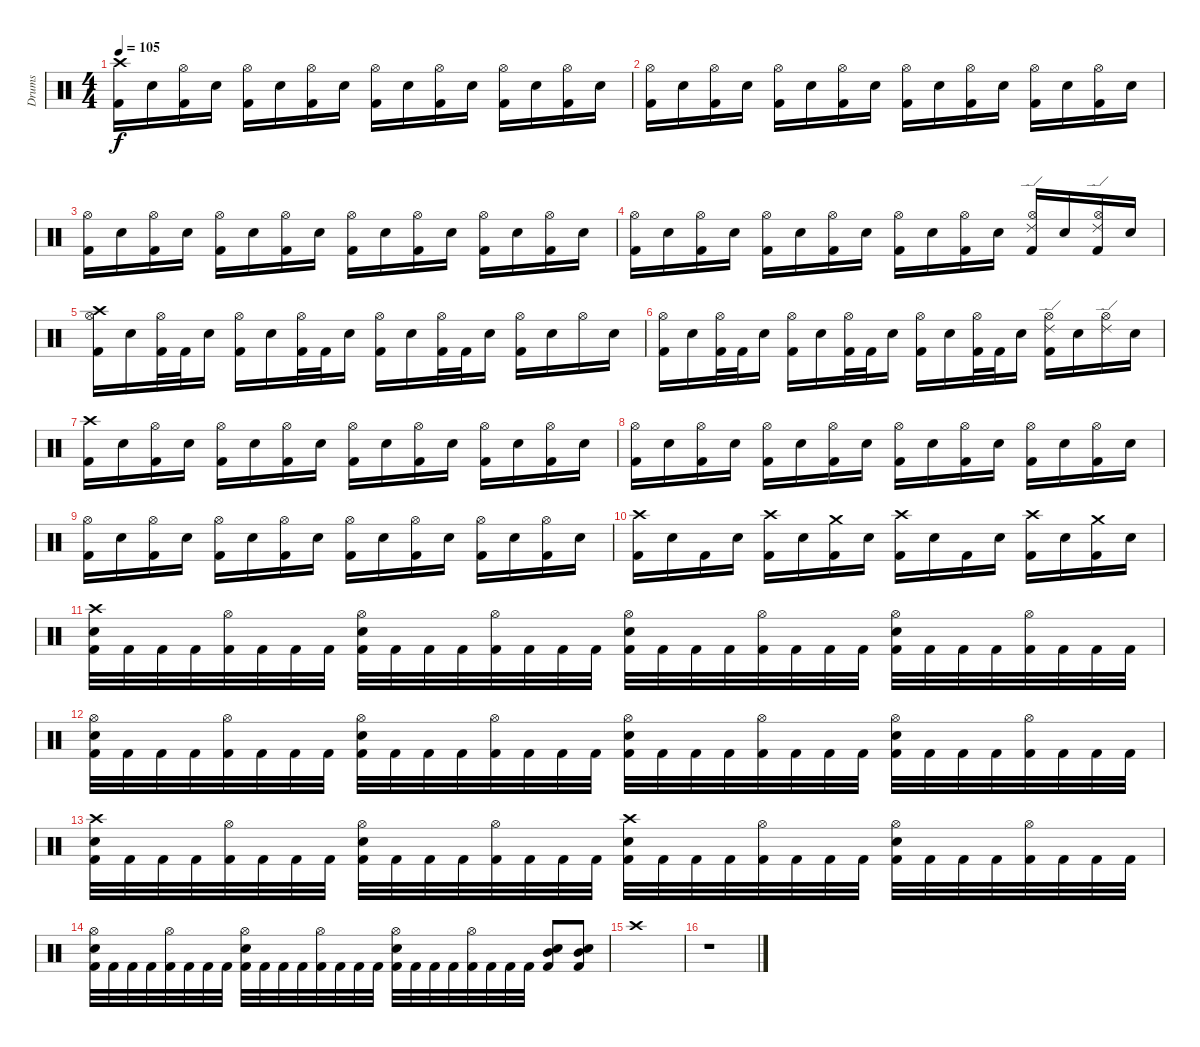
\track ("Drums" "Drums") {instrument percussion}
\staff {score}
\articulation defaults
\ts (4 4)
\tempo 105
\clef neutral
\ks c
("Crash high (hit)" "Kick (hit) 2").16{dy f} "Snare (hit) 2".16 ("Hi-Hat (open)" "Kick (hit) 2").16 "Snare (hit) 2".16 ("Hi-Hat (open)" "Kick (hit) 2").16 "Snare (hit) 2".16 ("Hi-Hat (open)" "Kick (hit) 2").16 "Snare (hit) 2".16 ("Hi-Hat (open)" "Kick (hit) 2").16 "Snare (hit) 2".16 ("Hi-Hat (open)" "Kick (hit) 2").16 "Snare (hit) 2".16 ("Hi-Hat (open)" "Kick (hit) 2").16 "Snare (hit) 2".16 ("Hi-Hat (open)" "Kick (hit) 2").16 "Snare (hit) 2".16 |
("Hi-Hat (open)" "Kick (hit) 2").16 "Snare (hit) 2".16 ("Hi-Hat (open)" "Kick (hit) 2").16 "Snare (hit) 2".16 ("Hi-Hat (open)" "Kick (hit) 2").16 "Snare (hit) 2".16 ("Hi-Hat (open)" "Kick (hit) 2").16 "Snare (hit) 2".16 ("Hi-Hat (open)" "Kick (hit) 2").16 "Snare (hit) 2".16 ("Hi-Hat (open)" "Kick (hit) 2").16 "Snare (hit) 2".16 ("Hi-Hat (open)" "Kick (hit) 2").16 "Snare (hit) 2".16 ("Hi-Hat (open)" "Kick (hit) 2").16 "Snare (hit) 2".16 |
("Hi-Hat (open)" "Kick (hit) 2").16 "Snare (hit) 2".16 ("Hi-Hat (open)" "Kick (hit) 2").16 "Snare (hit) 2".16 ("Hi-Hat (open)" "Kick (hit) 2").16 "Snare (hit) 2".16 ("Hi-Hat (open)" "Kick (hit) 2").16 "Snare (hit) 2".16 ("Hi-Hat (open)" "Kick (hit) 2").16 "Snare (hit) 2".16 ("Hi-Hat (open)" "Kick (hit) 2").16 "Snare (hit) 2".16 ("Hi-Hat (open)" "Kick (hit) 2").16 "Snare (hit) 2".16 ("Hi-Hat (open)" "Kick (hit) 2").16 "Snare (hit) 2".16 |
("Hi-Hat (open)" "Kick (hit) 2").16 "Snare (hit) 2".16 ("Hi-Hat (open)" "Kick (hit) 2").16 "Snare (hit) 2".16 ("Hi-Hat (open)" "Kick (hit) 2").16 "Snare (hit) 2".16 ("Hi-Hat (open)" "Kick (hit) 2").16 "Snare (hit) 2".16 ("Hi-Hat (open)" "Kick (hit) 2").16 "Snare (hit) 2".16 ("Hi-Hat (open)" "Kick (hit) 2").16 "Snare (hit) 2".16 ("Ride (edge) 2" "Hi-Hat (open)" "Kick (hit) 2").16 "Snare (hit) 2".16 ("Ride (edge) 2" "Hi-Hat (open)" "Kick (hit) 2").16 "Snare (hit) 2".16 |
("Crash high (hit)" "Hi-Hat (open)" "Kick (hit) 2").16 "Snare (hit) 2".16 ("Hi-Hat (open)" "Kick (hit) 2").32 "Kick (hit) 2".32 "Snare (hit) 2".16 ("Hi-Hat (open)" "Kick (hit) 2").16 "Snare (hit) 2".16 ("Hi-Hat (open)" "Kick (hit) 2").32 "Kick (hit) 2".32 "Snare (hit) 2".16 ("Hi-Hat (open)" "Kick (hit) 2").16 "Snare (hit) 2".16 ("Hi-Hat (open)" "Kick (hit) 2").32 "Kick (hit) 2".32 "Snare (hit) 2".16 ("Hi-Hat (open)" "Kick (hit) 2").16 "Snare (hit) 2".16 "Hi-Hat (open)".16 "Snare (hit) 2".16 |
("Hi-Hat (open)" "Kick (hit) 2").16 "Snare (hit) 2".16 ("Hi-Hat (open)" "Kick (hit) 2").32 "Kick (hit) 2".32 "Snare (hit) 2".16 ("Hi-Hat (open)" "Kick (hit) 2").16 "Snare (hit) 2".16 ("Hi-Hat (open)" "Kick (hit) 2").32 "Kick (hit) 2".32 "Snare (hit) 2".16 ("Hi-Hat (open)" "Kick (hit) 2").16 "Snare (hit) 2".16 ("Hi-Hat (open)" "Kick (hit) 2").32 "Kick (hit) 2".32 "Snare (hit) 2".16 ("Ride (edge) 2" "Hi-Hat (open)" "Kick (hit) 2").16 "Snare (hit) 2".16 ("Ride (edge) 2" "Hi-Hat (open)").16 "Snare (hit) 2".16 |
("Crash high (hit)" "Kick (hit) 2").16 "Snare (hit) 2".16 ("Hi-Hat (open)" "Kick (hit) 2").16 "Snare (hit) 2".16 ("Hi-Hat (open)" "Kick (hit) 2").16 "Snare (hit) 2".16 ("Hi-Hat (open)" "Kick (hit) 2").16 "Snare (hit) 2".16 ("Hi-Hat (open)" "Kick (hit) 2").16 "Snare (hit) 2".16 ("Hi-Hat (open)" "Kick (hit) 2").16 "Snare (hit) 2".16 ("Hi-Hat (open)" "Kick (hit) 2").16 "Snare (hit) 2".16 ("Hi-Hat (open)" "Kick (hit) 2").16 "Snare (hit) 2".16 |
("Hi-Hat (open)" "Kick (hit) 2").16 "Snare (hit) 2".16 ("Hi-Hat (open)" "Kick (hit) 2").16 "Snare (hit) 2".16 ("Hi-Hat (open)" "Kick (hit) 2").16 "Snare (hit) 2".16 ("Hi-Hat (open)" "Kick (hit) 2").16 "Snare (hit) 2".16 ("Hi-Hat (open)" "Kick (hit) 2").16 "Snare (hit) 2".16 ("Hi-Hat (open)" "Kick (hit) 2").16 "Snare (hit) 2".16 ("Hi-Hat (open)" "Kick (hit) 2").16 "Snare (hit) 2".16 ("Hi-Hat (open)" "Kick (hit) 2").16 "Snare (hit) 2".16 |
("Hi-Hat (open)" "Kick (hit) 2").16 "Snare (hit) 2".16 ("Hi-Hat (open)" "Kick (hit) 2").16 "Snare (hit) 2".16 ("Hi-Hat (open)" "Kick (hit) 2").16 "Snare (hit) 2".16 ("Hi-Hat (open)" "Kick (hit) 2").16 "Snare (hit) 2".16 ("Hi-Hat (open)" "Kick (hit) 2").16 "Snare (hit) 2".16 ("Hi-Hat (open)" "Kick (hit) 2").16 "Snare (hit) 2".16 ("Hi-Hat (open)" "Kick (hit) 2").16 "Snare (hit) 2".16 ("Hi-Hat (open)" "Kick (hit) 2").16 "Snare (hit) 2".16 |
("Crash high (hit)" "Kick (hit) 2").16 "Snare (hit) 2".16 "Kick (hit) 2".16 "Snare (hit) 2".16 ("Crash high (hit)" "Kick (hit) 2").16 "Snare (hit) 2".16 ("Crash medium (hit)" "Kick (hit) 2").16 "Snare (hit) 2".16 ("Crash high (hit)" "Kick (hit) 2").16 "Snare (hit) 2".16 "Kick (hit) 2".16 "Snare (hit) 2".16 ("Crash high (hit)" "Kick (hit) 2").16 "Snare (hit) 2".16 ("Crash medium (hit)" "Kick (hit) 2").16 "Snare (hit) 2".16 |
("Crash high (hit)" "Snare (hit) 2" "Kick (hit) 2").32 "Kick (hit) 2".32 "Kick (hit) 2".32 "Kick (hit) 2".32 ("Hi-Hat (open)" "Kick (hit) 2").32 "Kick (hit) 2".32 "Kick (hit) 2".32 "Kick (hit) 2".32 ("Snare (hit) 2" "Hi-Hat (open)" "Kick (hit) 2").32 "Kick (hit) 2".32 "Kick (hit) 2".32 "Kick (hit) 2".32 ("Hi-Hat (open)" "Kick (hit) 2").32 "Kick (hit) 2".32 "Kick (hit) 2".32 "Kick (hit) 2".32 ("Snare (hit) 2" "Hi-Hat (open)" "Kick (hit) 2").32 "Kick (hit) 2".32 "Kick (hit) 2".32 "Kick (hit) 2".32 ("Hi-Hat (open)" "Kick (hit) 2").32 "Kick (hit) 2".32 "Kick (hit) 2".32 "Kick (hit) 2".32 ("Snare (hit) 2" "Hi-Hat (open)" "Kick (hit) 2").32 "Kick (hit) 2".32 "Kick (hit) 2".32 "Kick (hit) 2".32 ("Hi-Hat (open)" "Kick (hit) 2").32 "Kick (hit) 2".32 "Kick (hit) 2".32 "Kick (hit) 2".32 |
("Snare (hit) 2" "Hi-Hat (open)" "Kick (hit) 2").32 "Kick (hit) 2".32 "Kick (hit) 2".32 "Kick (hit) 2".32 ("Hi-Hat (open)" "Kick (hit) 2").32 "Kick (hit) 2".32 "Kick (hit) 2".32 "Kick (hit) 2".32 ("Snare (hit) 2" "Hi-Hat (open)" "Kick (hit) 2").32 "Kick (hit) 2".32 "Kick (hit) 2".32 "Kick (hit) 2".32 ("Hi-Hat (open)" "Kick (hit) 2").32 "Kick (hit) 2".32 "Kick (hit) 2".32 "Kick (hit) 2".32 ("Snare (hit) 2" "Hi-Hat (open)" "Kick (hit) 2").32 "Kick (hit) 2".32 "Kick (hit) 2".32 "Kick (hit) 2".32 ("Hi-Hat (open)" "Kick (hit) 2").32 "Kick (hit) 2".32 "Kick (hit) 2".32 "Kick (hit) 2".32 ("Snare (hit) 2" "Hi-Hat (open)" "Kick (hit) 2").32 "Kick (hit) 2".32 "Kick (hit) 2".32 "Kick (hit) 2".32 ("Hi-Hat (open)" "Kick (hit) 2").32 "Kick (hit) 2".32 "Kick (hit) 2".32 "Kick (hit) 2".32 |
("Crash high (hit)" "Snare (hit) 2" "Kick (hit) 2").32 "Kick (hit) 2".32 "Kick (hit) 2".32 "Kick (hit) 2".32 ("Hi-Hat (open)" "Kick (hit) 2").32 "Kick (hit) 2".32 "Kick (hit) 2".32 "Kick (hit) 2".32 ("Snare (hit) 2" "Hi-Hat (open)" "Kick (hit) 2").32 "Kick (hit) 2".32 "Kick (hit) 2".32 "Kick (hit) 2".32 ("Hi-Hat (open)" "Kick (hit) 2").32 "Kick (hit) 2".32 "Kick (hit) 2".32 "Kick (hit) 2".32 ("Crash high (hit)" "Snare (hit) 2" "Kick (hit) 2").32 "Kick (hit) 2".32 "Kick (hit) 2".32 "Kick (hit) 2".32 ("Hi-Hat (open)" "Kick (hit) 2").32 "Kick (hit) 2".32 "Kick (hit) 2".32 "Kick (hit) 2".32 ("Snare (hit) 2" "Hi-Hat (open)" "Kick (hit) 2").32 "Kick (hit) 2".32 "Kick (hit) 2".32 "Kick (hit) 2".32 ("Hi-Hat (open)" "Kick (hit) 2").32 "Kick (hit) 2".32 "Kick (hit) 2".32 "Kick (hit) 2".32 |
("Snare (hit) 2" "Hi-Hat (open)" "Kick (hit) 2").32 "Kick (hit) 2".32 "Kick (hit) 2".32 "Kick (hit) 2".32 ("Hi-Hat (open)" "Kick (hit) 2").32 "Kick (hit) 2".32 "Kick (hit) 2".32 "Kick (hit) 2".32 ("Snare (hit) 2" "Hi-Hat (open)" "Kick (hit) 2").32 "Kick (hit) 2".32 "Kick (hit) 2".32 "Kick (hit) 2".32 ("Hi-Hat (open)" "Kick (hit) 2").32 "Kick (hit) 2".32 "Kick (hit) 2".32 "Kick (hit) 2".32 ("Snare (hit) 2" "Hi-Hat (open)" "Kick (hit) 2").32 "Kick (hit) 2".32 "Kick (hit) 2".32 "Kick (hit) 2".32 ("Hi-Hat (open)" "Kick (hit) 2").32 "Kick (hit) 2".32 "Kick (hit) 2".32 "Kick (hit) 2".32 ("Mid Tom (hit)" "Snare (hit) 2" "Kick (hit) 2").8 ("Mid Tom (hit)" "Snare (hit) 2" "Kick (hit) 2").8 |
"Crash high (hit)".1 |
r.1
